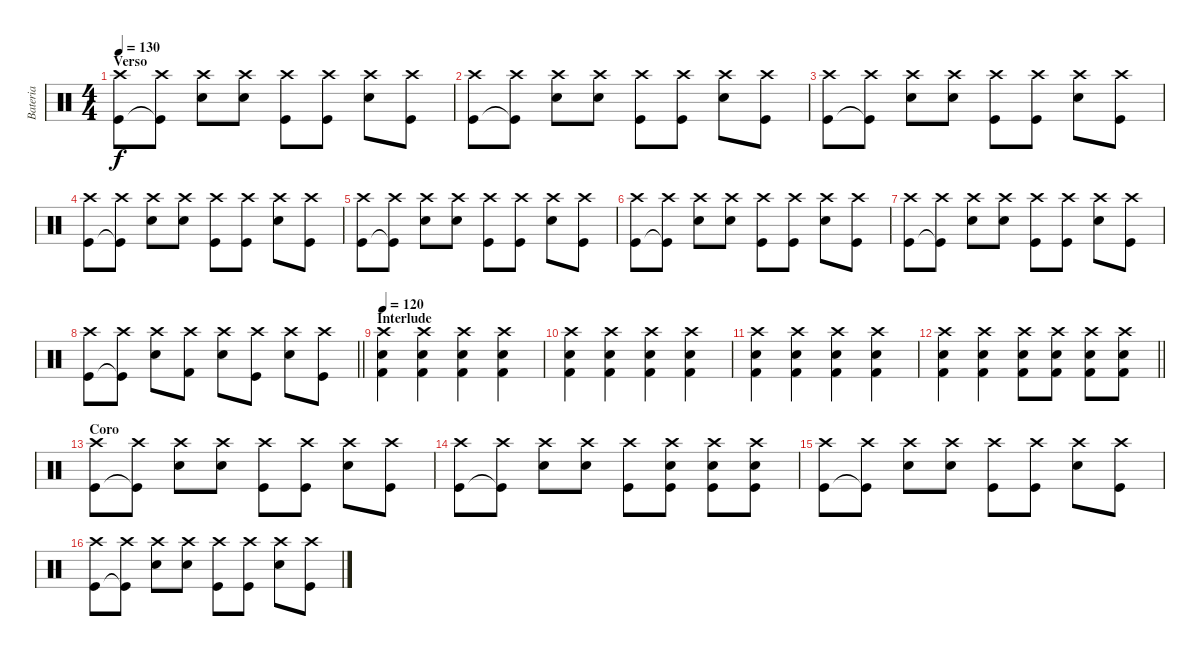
\track ("Bateria" "Bateria") {instrument percussion}
\staff {score}
\articulation defaults
\ts (4 4)
\section ("" "Verso")
\tempo 130
\clef neutral
\ks c
("Crash high (hit)" "Kick (hit)").8{dy f} ("Crash high (hit)" "Kick (hit)"{t}).8 ("Crash high (hit)" "Snare (hit) 2").8 ("Crash high (hit)" "Snare (hit) 2").8 ("Crash high (hit)" "Kick (hit)").8 ("Crash high (hit)" "Kick (hit)").8 ("Crash high (hit)" "Snare (hit) 2").8 ("Crash high (hit)" "Kick (hit)").8 |
("Crash high (hit)" "Kick (hit)").8 ("Crash high (hit)" "Kick (hit)"{t}).8 ("Crash high (hit)" "Snare (hit) 2").8 ("Crash high (hit)" "Snare (hit) 2").8 ("Crash high (hit)" "Kick (hit)").8 ("Crash high (hit)" "Kick (hit)").8 ("Crash high (hit)" "Snare (hit) 2").8 ("Crash high (hit)" "Kick (hit)").8 |
("Crash high (hit)" "Kick (hit)").8 ("Crash high (hit)" "Kick (hit)"{t}).8 ("Crash high (hit)" "Snare (hit) 2").8 ("Crash high (hit)" "Snare (hit) 2").8 ("Crash high (hit)" "Kick (hit)").8 ("Crash high (hit)" "Kick (hit)").8 ("Crash high (hit)" "Snare (hit) 2").8 ("Crash high (hit)" "Kick (hit)").8 |
("Crash high (hit)" "Kick (hit)").8 ("Crash high (hit)" "Kick (hit)"{t}).8 ("Crash high (hit)" "Snare (hit) 2").8 ("Crash high (hit)" "Snare (hit) 2").8 ("Crash high (hit)" "Kick (hit)").8 ("Crash high (hit)" "Kick (hit)").8 ("Crash high (hit)" "Snare (hit) 2").8 ("Crash high (hit)" "Kick (hit)").8 |
("Crash high (hit)" "Kick (hit)").8 ("Crash high (hit)" "Kick (hit)"{t}).8 ("Crash high (hit)" "Snare (hit) 2").8 ("Crash high (hit)" "Snare (hit) 2").8 ("Crash high (hit)" "Kick (hit)").8 ("Crash high (hit)" "Kick (hit)").8 ("Crash high (hit)" "Snare (hit) 2").8 ("Crash high (hit)" "Kick (hit)").8 |
("Crash high (hit)" "Kick (hit)").8 ("Crash high (hit)" "Kick (hit)"{t}).8 ("Crash high (hit)" "Snare (hit) 2").8 ("Crash high (hit)" "Snare (hit) 2").8 ("Crash high (hit)" "Kick (hit)").8 ("Crash high (hit)" "Kick (hit)").8 ("Crash high (hit)" "Snare (hit) 2").8 ("Crash high (hit)" "Kick (hit)").8 |
("Crash high (hit)" "Kick (hit)").8 ("Crash high (hit)" "Kick (hit)"{t}).8 ("Crash high (hit)" "Snare (hit) 2").8 ("Crash high (hit)" "Snare (hit) 2").8 ("Crash high (hit)" "Kick (hit)").8 ("Crash high (hit)" "Kick (hit)").8 ("Crash high (hit)" "Snare (hit) 2").8 ("Crash high (hit)" "Kick (hit)").8 |
\barLineRight lightlight
("Crash high (hit)" "Kick (hit)").8 ("Crash high (hit)" "Kick (hit)"{t}).8 ("Crash high (hit)" "Snare (hit) 2").8 ("Crash high (hit)" "Kick (hit) 2").8 ("Crash high (hit)" "Snare (hit) 2").8 ("Crash high (hit)" "Kick (hit)").8 ("Crash high (hit)" "Snare (hit) 2").8 ("Crash high (hit)" "Kick (hit)").8 |
\section ("" "Interlude")
\tempo 135
\tempo 120
("Crash high (hit)" "Snare (hit) 2" "Kick (hit) 2").4 ("Crash high (hit)" "Snare (hit) 2" "Kick (hit) 2").4 ("Crash high (hit)" "Snare (hit) 2" "Kick (hit) 2").4 ("Crash high (hit)" "Snare (hit) 2" "Kick (hit) 2").4 |
("Crash high (hit)" "Snare (hit) 2" "Kick (hit) 2").4 ("Crash high (hit)" "Snare (hit) 2" "Kick (hit) 2").4 ("Crash high (hit)" "Snare (hit) 2" "Kick (hit) 2").4 ("Crash high (hit)" "Snare (hit) 2" "Kick (hit) 2").4 |
("Crash high (hit)" "Snare (hit) 2" "Kick (hit) 2").4 ("Crash high (hit)" "Snare (hit) 2" "Kick (hit) 2").4 ("Crash high (hit)" "Snare (hit) 2" "Kick (hit) 2").4 ("Crash high (hit)" "Snare (hit) 2" "Kick (hit) 2").4 |
\barLineRight lightlight
("Crash high (hit)" "Snare (hit) 2" "Kick (hit) 2").4 ("Crash high (hit)" "Snare (hit) 2" "Kick (hit) 2").4 ("Crash high (hit)" "Snare (hit) 2" "Kick (hit) 2").8 ("Crash high (hit)" "Snare (hit) 2" "Kick (hit) 2").8 ("Crash high (hit)" "Snare (hit) 2" "Kick (hit) 2").8 ("Crash high (hit)" "Snare (hit) 2" "Kick (hit) 2").8 |
\section ("" "Coro")
("Crash high (hit)" "Kick (hit)").8 ("Crash high (hit)" "Kick (hit)"{t}).8 ("Crash high (hit)" "Snare (hit) 2").8 ("Crash high (hit)" "Snare (hit) 2").8 ("Crash high (hit)" "Kick (hit)").8 ("Crash high (hit)" "Kick (hit)").8 ("Crash high (hit)" "Snare (hit) 2").8 ("Crash high (hit)" "Kick (hit)").8 |
("Crash high (hit)" "Kick (hit)").8 ("Crash high (hit)" "Kick (hit)"{t}).8 ("Crash high (hit)" "Snare (hit) 2").8 ("Crash high (hit)" "Snare (hit) 2").8 ("Crash high (hit)" "Kick (hit)").8 ("Crash high (hit)" "Snare (hit) 2" "Kick (hit)").8 ("Crash high (hit)" "Snare (hit) 2" "Kick (hit)").8 ("Crash high (hit)" "Snare (hit) 2" "Kick (hit)").8 |
("Crash high (hit)" "Kick (hit)").8 ("Crash high (hit)" "Kick (hit)"{t}).8 ("Crash high (hit)" "Snare (hit) 2").8 ("Crash high (hit)" "Snare (hit) 2").8 ("Crash high (hit)" "Kick (hit)").8 ("Crash high (hit)" "Kick (hit)").8 ("Crash high (hit)" "Snare (hit) 2").8 ("Crash high (hit)" "Kick (hit)").8 |
("Crash high (hit)" "Kick (hit)").8 ("Crash high (hit)" "Kick (hit)"{t}).8 ("Crash high (hit)" "Snare (hit) 2").8 ("Crash high (hit)" "Snare (hit) 2").8 ("Crash high (hit)" "Kick (hit)").8 ("Crash high (hit)" "Kick (hit)").8 ("Crash high (hit)" "Snare (hit) 2").8 ("Crash high (hit)" "Kick (hit)").8
